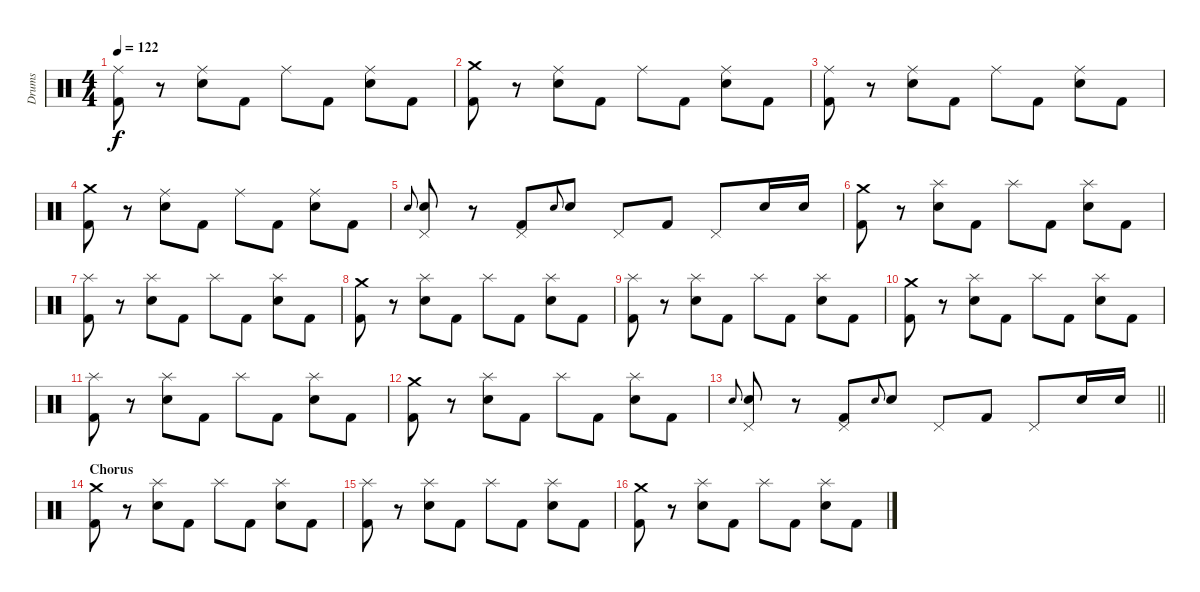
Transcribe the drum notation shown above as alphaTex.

\track ("Drums" "Drums") {instrument percussion}
\staff {score}
\articulation defaults
\ts (4 4)
\tempo 122
\clef neutral
\ks c
("Kick (hit) 2" "Ride (middle)").8{dy f} r.8 ("Snare (hit) 2" "Ride (middle)").8 "Kick (hit) 2".8 "Ride (middle)".8 "Kick (hit) 2".8 ("Snare (hit) 2" "Ride (middle)").8 "Kick (hit) 2".8 |
("Kick (hit) 2" "Crash medium (hit)").8 r.8 ("Snare (hit) 2" "Ride (middle)").8 "Kick (hit) 2".8 "Ride (middle)".8 "Kick (hit) 2".8 ("Snare (hit) 2" "Ride (middle)").8 "Kick (hit) 2".8 |
("Kick (hit) 2" "Ride (middle)").8 r.8 ("Snare (hit) 2" "Ride (middle)").8 "Kick (hit) 2".8 "Ride (middle)".8 "Kick (hit) 2".8 ("Snare (hit) 2" "Ride (middle)").8 "Kick (hit) 2".8 |
("Kick (hit) 2" "Crash medium (hit)").8 r.8 ("Snare (hit) 2" "Ride (middle)").8 "Kick (hit) 2".8 "Ride (middle)".8 "Kick (hit) 2".8 ("Snare (hit) 2" "Ride (middle)").8 "Kick (hit) 2".8 |
"Snare (hit) 2".8{gr onbeat} ("Snare (hit) 2" "Pedal Hi-Hat (hit)").8 r.8 ("Kick (hit) 2" "Pedal Hi-Hat (hit)").8 "Snare (hit) 2".8{gr onbeat} "Snare (hit) 2".8 "Pedal Hi-Hat (hit)".8 "Kick (hit) 2".8 "Pedal Hi-Hat (hit)".8 "Snare (hit) 2".16 "Snare (hit) 2".16 |
("Kick (hit) 2" "Crash medium (hit)").8 r.8 ("Snare (hit) 2" "Splash (hit)").8 "Kick (hit) 2".8 "Splash (hit)".8 "Kick (hit) 2".8 ("Snare (hit) 2" "Splash (hit)").8 "Kick (hit) 2".8 |
("Kick (hit) 2" "Splash (hit)").8 r.8 ("Snare (hit) 2" "Splash (hit)").8 "Kick (hit) 2".8 "Splash (hit)".8 "Kick (hit) 2".8 ("Snare (hit) 2" "Splash (hit)").8 "Kick (hit) 2".8 |
("Kick (hit) 2" "Crash medium (hit)").8 r.8 ("Snare (hit) 2" "Splash (hit)").8 "Kick (hit) 2".8 "Splash (hit)".8 "Kick (hit) 2".8 ("Snare (hit) 2" "Splash (hit)").8 "Kick (hit) 2".8 |
("Kick (hit) 2" "Splash (hit)").8 r.8 ("Snare (hit) 2" "Splash (hit)").8 "Kick (hit) 2".8 "Splash (hit)".8 "Kick (hit) 2".8 ("Snare (hit) 2" "Splash (hit)").8 "Kick (hit) 2".8 |
("Kick (hit) 2" "Crash medium (hit)").8 r.8 ("Snare (hit) 2" "Splash (hit)").8 "Kick (hit) 2".8 "Splash (hit)".8 "Kick (hit) 2".8 ("Snare (hit) 2" "Splash (hit)").8 "Kick (hit) 2".8 |
("Kick (hit) 2" "Splash (hit)").8 r.8 ("Snare (hit) 2" "Splash (hit)").8 "Kick (hit) 2".8 "Splash (hit)".8 "Kick (hit) 2".8 ("Snare (hit) 2" "Splash (hit)").8 "Kick (hit) 2".8 |
("Kick (hit) 2" "Crash medium (hit)").8 r.8 ("Snare (hit) 2" "Splash (hit)").8 "Kick (hit) 2".8 "Splash (hit)".8 "Kick (hit) 2".8 ("Snare (hit) 2" "Splash (hit)").8 "Kick (hit) 2".8 |
\barLineRight lightlight "Snare (hit) 2".8{gr onbeat}
("Snare (hit) 2" "Pedal Hi-Hat (hit)").8 r.8 ("Kick (hit) 2" "Pedal Hi-Hat (hit)").8 "Snare (hit) 2".8{gr onbeat} "Snare (hit) 2".8 "Pedal Hi-Hat (hit)".8 "Kick (hit) 2".8 "Pedal Hi-Hat (hit)".8 "Snare (hit) 2".16 "Snare (hit) 2".16 |
\section ("" "Chorus")
("Kick (hit) 2" "Crash medium (hit)").8 r.8 ("Snare (hit) 2" "Splash (hit)").8 "Kick (hit) 2".8 "Splash (hit)".8 "Kick (hit) 2".8 ("Snare (hit) 2" "Splash (hit)").8 "Kick (hit) 2".8 |
("Kick (hit) 2" "Splash (hit)").8 r.8 ("Snare (hit) 2" "Splash (hit)").8 "Kick (hit) 2".8 "Splash (hit)".8 "Kick (hit) 2".8 ("Snare (hit) 2" "Splash (hit)").8 "Kick (hit) 2".8 |
("Kick (hit) 2" "Crash medium (hit)").8 r.8 ("Snare (hit) 2" "Splash (hit)").8 "Kick (hit) 2".8 "Splash (hit)".8 "Kick (hit) 2".8 ("Snare (hit) 2" "Splash (hit)").8 "Kick (hit) 2".8
